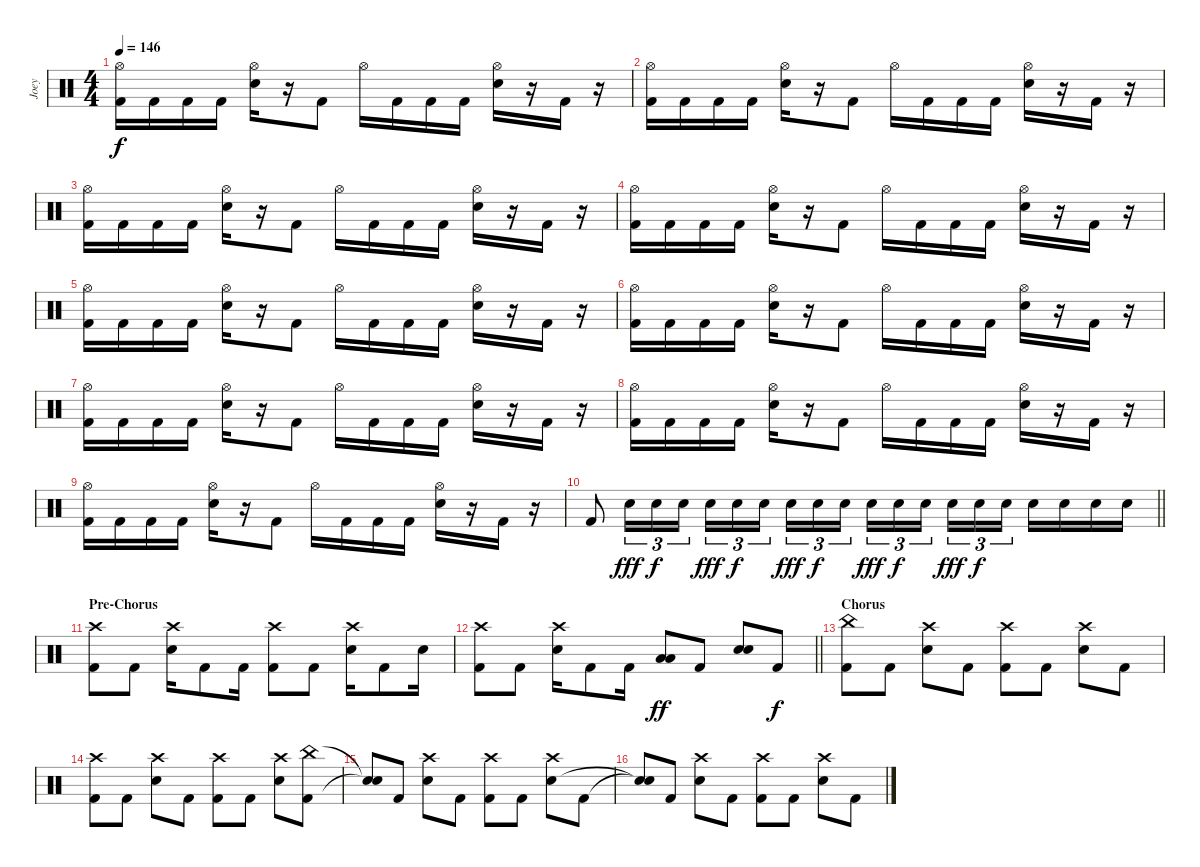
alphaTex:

\track ("Joey" "Joey") {instrument percussion}
\staff {score}
\articulation defaults
\ts (4 4)
\tempo 146
\clef neutral
\ks c
("Hi-Hat (open)" "Kick (hit) 2").16{dy f} "Kick (hit) 2".16 "Kick (hit) 2".16 "Kick (hit) 2".16 ("Hi-Hat (open)" "Snare (hit) 2").16 r.16 "Kick (hit) 2".8 "Hi-Hat (open)".16 "Kick (hit) 2".16 "Kick (hit) 2".16 "Kick (hit) 2".16 ("Hi-Hat (open)" "Snare (hit) 2").16 r.16 "Kick (hit) 2".16 r.16 |
("Hi-Hat (open)" "Kick (hit) 2").16 "Kick (hit) 2".16 "Kick (hit) 2".16 "Kick (hit) 2".16 ("Hi-Hat (open)" "Snare (hit) 2").16 r.16 "Kick (hit) 2".8 "Hi-Hat (open)".16 "Kick (hit) 2".16 "Kick (hit) 2".16 "Kick (hit) 2".16 ("Hi-Hat (open)" "Snare (hit) 2").16 r.16 "Kick (hit) 2".16 r.16 |
("Hi-Hat (open)" "Kick (hit) 2").16 "Kick (hit) 2".16 "Kick (hit) 2".16 "Kick (hit) 2".16 ("Hi-Hat (open)" "Snare (hit) 2").16 r.16 "Kick (hit) 2".8 "Hi-Hat (open)".16 "Kick (hit) 2".16 "Kick (hit) 2".16 "Kick (hit) 2".16 ("Hi-Hat (open)" "Snare (hit) 2").16 r.16 "Kick (hit) 2".16 r.16 |
("Hi-Hat (open)" "Kick (hit) 2").16 "Kick (hit) 2".16 "Kick (hit) 2".16 "Kick (hit) 2".16 ("Hi-Hat (open)" "Snare (hit) 2").16 r.16 "Kick (hit) 2".8 "Hi-Hat (open)".16 "Kick (hit) 2".16 "Kick (hit) 2".16 "Kick (hit) 2".16 ("Hi-Hat (open)" "Snare (hit) 2").16 r.16 "Kick (hit) 2".16 r.16 |
("Hi-Hat (open)" "Kick (hit) 2").16 "Kick (hit) 2".16 "Kick (hit) 2".16 "Kick (hit) 2".16 ("Hi-Hat (open)" "Snare (hit) 2").16 r.16 "Kick (hit) 2".8 "Hi-Hat (open)".16 "Kick (hit) 2".16 "Kick (hit) 2".16 "Kick (hit) 2".16 ("Hi-Hat (open)" "Snare (hit) 2").16 r.16 "Kick (hit) 2".16 r.16 |
("Hi-Hat (open)" "Kick (hit) 2").16 "Kick (hit) 2".16 "Kick (hit) 2".16 "Kick (hit) 2".16 ("Hi-Hat (open)" "Snare (hit) 2").16 r.16 "Kick (hit) 2".8 "Hi-Hat (open)".16 "Kick (hit) 2".16 "Kick (hit) 2".16 "Kick (hit) 2".16 ("Hi-Hat (open)" "Snare (hit) 2").16 r.16 "Kick (hit) 2".16 r.16 |
("Hi-Hat (open)" "Kick (hit) 2").16 "Kick (hit) 2".16 "Kick (hit) 2".16 "Kick (hit) 2".16 ("Hi-Hat (open)" "Snare (hit) 2").16 r.16 "Kick (hit) 2".8 "Hi-Hat (open)".16 "Kick (hit) 2".16 "Kick (hit) 2".16 "Kick (hit) 2".16 ("Hi-Hat (open)" "Snare (hit) 2").16 r.16 "Kick (hit) 2".16 r.16 |
("Hi-Hat (open)" "Kick (hit) 2").16 "Kick (hit) 2".16 "Kick (hit) 2".16 "Kick (hit) 2".16 ("Hi-Hat (open)" "Snare (hit) 2").16 r.16 "Kick (hit) 2".8 "Hi-Hat (open)".16 "Kick (hit) 2".16 "Kick (hit) 2".16 "Kick (hit) 2".16 ("Hi-Hat (open)" "Snare (hit) 2").16 r.16 "Kick (hit) 2".16 r.16 |
("Hi-Hat (open)" "Kick (hit) 2").16 "Kick (hit) 2".16 "Kick (hit) 2".16 "Kick (hit) 2".16 ("Hi-Hat (open)" "Snare (hit) 2").16 r.16 "Kick (hit) 2".8 "Hi-Hat (open)".16 "Kick (hit) 2".16 "Kick (hit) 2".16 "Kick (hit) 2".16 ("Hi-Hat (open)" "Snare (hit) 2").16 r.16 "Kick (hit) 2".16 r.16 |
\barLineRight lightlight "Kick (hit) 2".8 "Electric Snare (hit)".16{tu (3 2) dy fff} "Electric Snare (hit)".16{tu (3 2) dy f} "Electric Snare (hit)".16{tu (3 2)} "Electric Snare (hit)".16{tu (3 2) dy fff} "Electric Snare (hit)".16{tu (3 2) dy f} "Electric Snare (hit)".16{tu (3 2) beam splitsecondary} "Electric Snare (hit)".16{tu (3 2) dy fff} "Electric Snare (hit)".16{tu (3 2) dy f} "Electric Snare (hit)".16{tu (3 2)} "Electric Snare (hit)".16{tu (3 2) dy fff} "Electric Snare (hit)".16{tu (3 2) dy f} "Electric Snare (hit)".16{tu (3 2) beam splitsecondary} "Electric Snare (hit)".16{tu (3 2) dy fff} "Electric Snare (hit)".16{tu (3 2) dy f} "Electric Snare (hit)".16{tu (3 2)} "Snare (hit) 2".16 "Snare (hit) 2".16 "Snare (hit) 2".16 "Snare (hit) 2".16
|
\section ("" "Pre-Chorus")
("Crash high (hit)" "Kick (hit) 2").8 "Kick (hit) 2".8 ("Crash high (hit)" "Snare (hit) 2").16 "Kick (hit) 2".8 "Kick (hit) 2".16 ("Crash high (hit)" "Kick (hit) 2").8 "Kick (hit) 2".8 ("Crash high (hit)" "Snare (hit) 2").16 "Kick (hit) 2".8 "Snare (hit) 2".16 |
\barLineRight lightlight
("Crash high (hit)" "Kick (hit) 2").8 "Kick (hit) 2".8 ("Crash high (hit)" "Snare (hit) 2").16 "Kick (hit) 2".8 "Kick (hit) 2".16 ("Low Floor Tom (hit)" "Low Tom (hit)").8{dy ff} "Kick (hit) 2".8 ("Snare (hit) 2" "Snare (hit) 2").8{bd 240} "Kick (hit) 2".8{dy f} |
\section ("" "Chorus")
("China (hit)" "Kick (hit) 2").8 "Kick (hit) 2".8 ("Crash high (hit)" "Snare (hit) 2").8 "Kick (hit) 2".8 ("Crash high (hit)" "Kick (hit) 2").8 "Kick (hit) 2".8 ("Crash high (hit)" "Snare (hit) 2").8 "Kick (hit) 2".8 |
("Crash high (hit)" "Kick (hit) 2").8 "Kick (hit) 2".8 ("Crash high (hit)" "Snare (hit) 2").8 "Kick (hit) 2".8 ("Crash high (hit)" "Kick (hit) 2").8 "Kick (hit) 2".8 ("Crash high (hit)" "Snare (hit) 2").8 ("China (hit)" "Kick (hit) 2").8 |
("Snare (hit)"{t} "Snare (hit)"{t}).8 "Kick (hit) 2".8 ("Crash high (hit)" "Snare (hit) 2").8 "Kick (hit) 2".8 ("Crash high (hit)" "Kick (hit) 2").8 "Kick (hit) 2".8 ("Crash high (hit)" "Snare (hit) 2").8 "Kick (hit) 2".8 |
("Snare (hit)"{t} "Snare (hit)"{t}).8 "Kick (hit) 2".8 ("Crash high (hit)" "Snare (hit) 2").8 "Kick (hit) 2".8 ("Crash high (hit)" "Kick (hit) 2").8 "Kick (hit) 2".8 ("Crash high (hit)" "Snare (hit) 2").8 "Kick (hit) 2".8
